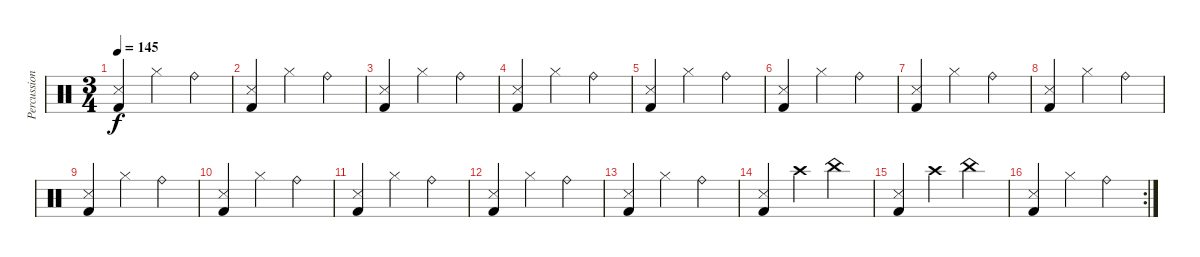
\track ("Percussion" "Percussion") {instrument percussion}
\staff {score}
\articulation defaults
\ts (3 4)
\tempo 145
\clef neutral
\ks c
("Kick (hit) 2" "Snare (side stick) 3").4{dy f} "Hi-Hat (closed)".4 "Ride (bell)".4 |
("Kick (hit) 2" "Snare (side stick) 3").4 "Hi-Hat (closed)".4 "Ride (bell)".4 |
("Kick (hit) 2" "Snare (side stick) 3").4 "Hi-Hat (closed)".4 "Ride (bell)".4 |
("Kick (hit) 2" "Snare (side stick) 3").4 "Hi-Hat (closed)".4 "Ride (bell)".4 |
("Kick (hit) 2" "Snare (side stick) 3").4 "Hi-Hat (closed)".4 "Ride (bell)".4 |
("Kick (hit) 2" "Snare (side stick) 3").4 "Hi-Hat (closed)".4 "Ride (bell)".4 |
("Kick (hit) 2" "Snare (side stick) 3").4 "Hi-Hat (closed)".4 "Ride (bell)".4 |
("Kick (hit) 2" "Snare (side stick) 3").4 "Hi-Hat (closed)".4 "Ride (bell)".4 |
("Kick (hit) 2" "Snare (side stick) 3").4 "Hi-Hat (closed)".4 "Ride (bell)".4 |
("Kick (hit) 2" "Snare (side stick) 3").4 "Hi-Hat (closed)".4 "Ride (bell)".4 |
("Kick (hit) 2" "Snare (side stick) 3").4 "Hi-Hat (closed)".4 "Ride (bell)".4 |
("Kick (hit) 2" "Snare (side stick) 3").4 "Hi-Hat (closed)".4 "Ride (bell)".4 |
("Kick (hit) 2" "Snare (side stick) 3").4 "Hi-Hat (closed)".4 "Ride (bell)".4 |
("Kick (hit) 2" "Snare (side stick) 3").4 "Crash high (hit)".4 "China (hit)".4 |
("Kick (hit) 2" "Snare (side stick) 3").4 "Crash high (hit)".4 "China (hit)".4 |
\rc 2
("Kick (hit) 2" "Snare (side stick) 3").4 "Hi-Hat (closed)".4 "Ride (bell)".4
